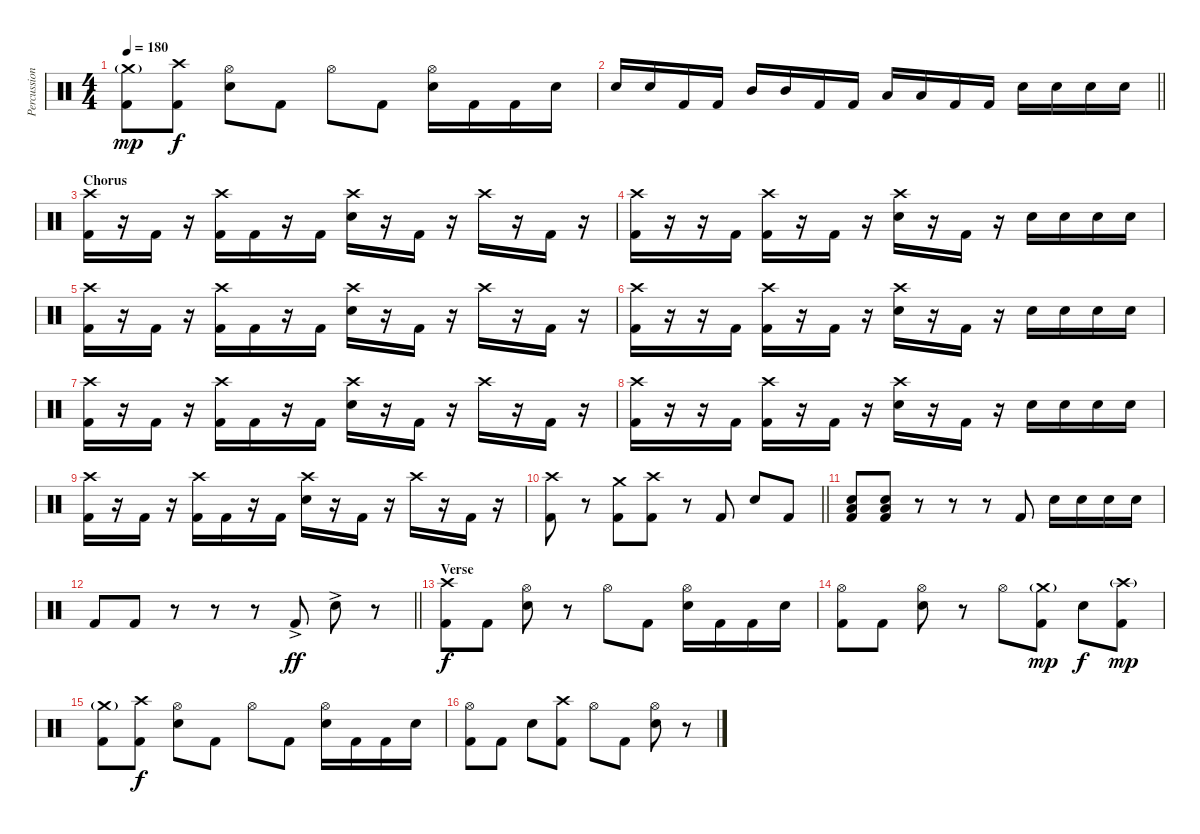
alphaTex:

\track ("Percussion" "Percussion") {instrument percussion}
\staff {score}
\articulation defaults
\ts (4 4)
\tempo 180
\clef neutral
\ks c
("Crash medium (hit)"{g} "Kick (hit) 2").8{dy mp} ("Crash high (hit)" "Kick (hit) 2").8{dy f} ("Hi-Hat (open)" "Electric Snare (hit)").8 "Kick (hit) 2".8 "Hi-Hat (open)".8 "Kick (hit) 2".8 ("Hi-Hat (open)" "Electric Snare (hit)").16 "Kick (hit) 2".16 "Kick (hit) 2".16 "Electric Snare (hit)".16 |
\barLineRight lightlight "Electric Snare (hit)".16 "Electric Snare (hit)".16 "Kick (hit) 2".16 "Kick (hit) 2".16 "Mid Tom (hit)".16 "Mid Tom (hit)".16 "Kick (hit) 2".16 "Kick (hit) 2".16 "Low Tom (hit)".16 "Low Tom (hit)".16 "Kick (hit) 2".16 "Kick (hit) 2".16 "Electric Snare (hit)".16 "Electric Snare (hit)".16 "Electric Snare (hit)".16 "Electric Snare (hit)".16
|
\section ("" "Chorus")
("Crash high (hit)" "Kick (hit) 2").16 r.16 "Kick (hit) 2".16 r.16 ("Crash high (hit)" "Kick (hit) 2").16 "Kick (hit) 2".16 r.16 "Kick (hit) 2".16 ("Crash high (hit)" "Electric Snare (hit)").16 r.16 "Kick (hit) 2".16 r.16 "Crash high (hit)".16 r.16 "Kick (hit) 2".16 r.16 |
("Crash high (hit)" "Kick (hit) 2").16 r.16 r.16 "Kick (hit) 2".16 ("Crash high (hit)" "Kick (hit) 2").16 r.16 "Kick (hit) 2".16 r.16 ("Crash high (hit)" "Electric Snare (hit)").16 r.16 "Kick (hit) 2".16 r.16 "Electric Snare (hit)".16 "Electric Snare (hit)".16 "Electric Snare (hit)".16 "Electric Snare (hit)".16 |
("Crash high (hit)" "Kick (hit) 2").16 r.16 "Kick (hit) 2".16 r.16 ("Crash high (hit)" "Kick (hit) 2").16 "Kick (hit) 2".16 r.16 "Kick (hit) 2".16 ("Crash high (hit)" "Electric Snare (hit)").16 r.16 "Kick (hit) 2".16 r.16 "Crash high (hit)".16 r.16 "Kick (hit) 2".16 r.16 |
("Crash high (hit)" "Kick (hit) 2").16 r.16 r.16 "Kick (hit) 2".16 ("Crash high (hit)" "Kick (hit) 2").16 r.16 "Kick (hit) 2".16 r.16 ("Crash high (hit)" "Electric Snare (hit)").16 r.16 "Kick (hit) 2".16 r.16 "Electric Snare (hit)".16 "Electric Snare (hit)".16 "Electric Snare (hit)".16 "Electric Snare (hit)".16 |
("Crash high (hit)" "Kick (hit) 2").16 r.16 "Kick (hit) 2".16 r.16 ("Crash high (hit)" "Kick (hit) 2").16 "Kick (hit) 2".16 r.16 "Kick (hit) 2".16 ("Crash high (hit)" "Electric Snare (hit)").16 r.16 "Kick (hit) 2".16 r.16 "Crash high (hit)".16 r.16 "Kick (hit) 2".16 r.16 |
("Crash high (hit)" "Kick (hit) 2").16 r.16 r.16 "Kick (hit) 2".16 ("Crash high (hit)" "Kick (hit) 2").16 r.16 "Kick (hit) 2".16 r.16 ("Crash high (hit)" "Electric Snare (hit)").16 r.16 "Kick (hit) 2".16 r.16 "Electric Snare (hit)".16 "Electric Snare (hit)".16 "Electric Snare (hit)".16 "Electric Snare (hit)".16 |
("Crash high (hit)" "Kick (hit) 2").16 r.16 "Kick (hit) 2".16 r.16 ("Crash high (hit)" "Kick (hit) 2").16 "Kick (hit) 2".16 r.16 "Kick (hit) 2".16 ("Crash high (hit)" "Electric Snare (hit)").16 r.16 "Kick (hit) 2".16 r.16 "Crash high (hit)".16 r.16 "Kick (hit) 2".16 r.16 |
\barLineRight lightlight
("Crash high (hit)" "Kick (hit) 2").8 r.8 ("Crash medium (hit)" "Kick (hit) 2").8 ("Crash high (hit)" "Kick (hit) 2").8 r.8 "Kick (hit) 2".8 "Electric Snare (hit)".8 "Kick (hit) 2".8 |
("Low Tom (hit)" "Electric Snare (hit)" "Kick (hit) 2").8 ("Low Tom (hit)" "Electric Snare (hit)" "Kick (hit) 2").8 r.8 r.8 r.8 "Kick (hit) 2".8 "Electric Snare (hit)".16 "Electric Snare (hit)".16 "Electric Snare (hit)".16 "Electric Snare (hit)".16 |
\barLineRight lightlight "Kick (hit) 2".8 "Kick (hit) 2".8
r.8 r.8 r.8 "Kick (hit) 2"{ac}.8{dy ff} "Electric Snare (hit)"{ac}.8 r.8 |
\section ("" "Verse")
("Crash high (hit)" "Kick (hit) 2").8{dy f} "Kick (hit) 2".8 ("Hi-Hat (open)" "Electric Snare (hit)").8 r.8 "Hi-Hat (open)".8 "Kick (hit) 2".8 ("Hi-Hat (open)" "Electric Snare (hit)").16 "Kick (hit) 2".16 "Kick (hit) 2".16 "Electric Snare (hit)".16 |
("Hi-Hat (open)" "Kick (hit) 2").8 "Kick (hit) 2".8 ("Hi-Hat (open)" "Electric Snare (hit)").8 r.8 "Hi-Hat (open)".8 ("Crash medium (hit)"{g} "Kick (hit) 2").8{dy mp} "Electric Snare (hit)".8{dy f} ("Crash high (hit)"{g} "Kick (hit) 2").8{dy mp} |
("Crash medium (hit)"{g} "Kick (hit) 2").8 ("Crash high (hit)" "Kick (hit) 2").8{dy f} ("Hi-Hat (open)" "Electric Snare (hit)").8 "Kick (hit) 2".8 "Hi-Hat (open)".8 "Kick (hit) 2".8 ("Hi-Hat (open)" "Electric Snare (hit)").16 "Kick (hit) 2".16 "Kick (hit) 2".16 "Electric Snare (hit)".16 |
("Hi-Hat (open)" "Kick (hit) 2").8 "Kick (hit) 2".8 "Electric Snare (hit)".8 ("Crash high (hit)" "Kick (hit) 2").8 "Hi-Hat (open)".8 "Kick (hit) 2".8 ("Hi-Hat (open)" "Electric Snare (hit)").8 r.8
